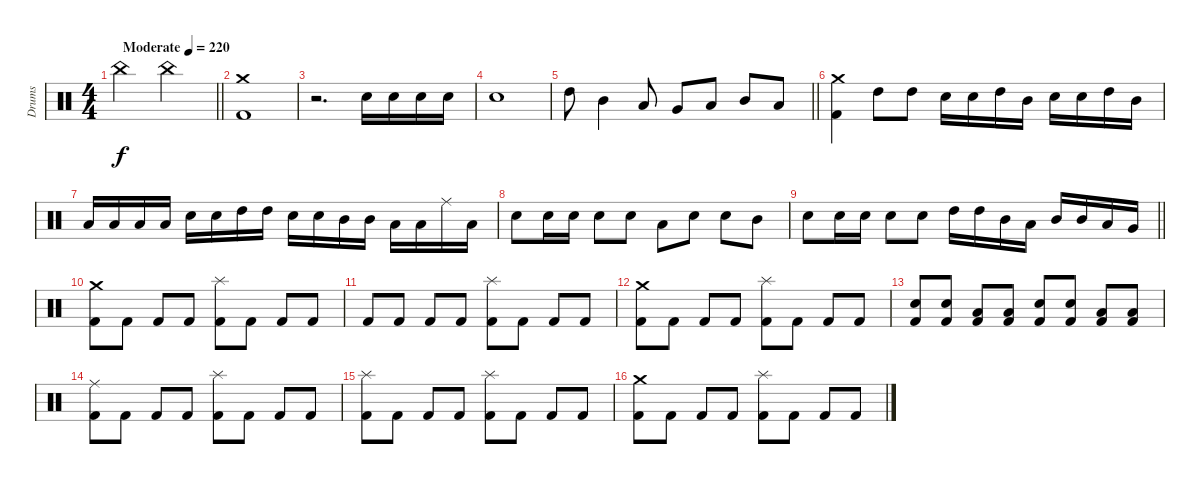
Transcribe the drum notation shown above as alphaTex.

\track ("Drums" "Drums") {instrument percussion}
\staff {score}
\articulation defaults
\ts (4 4)
\section ("" "")
\tempo (220 "Moderate")
\clef neutral
\barLineRight lightlight
\ks c "China (hit)".2{dy f} "China (hit)".2
|
\section ("" "")
("Crash medium (hit)" "Kick (hit) 2").1 |
r.2{d} "Electric Snare (hit)".16 "Electric Snare (hit)".16 "Electric Snare (hit)".16 "Electric Snare (hit)".16 |
"Electric Snare (hit)".1 |
\barLineRight lightlight "High Tom (hit)".8 "Mid Tom (hit)".4 "Low Tom (hit)".8 "Very Low Tom (hit)".8 "Low Tom (hit)".8 "Mid Tom (hit)".8 "Low Tom (hit)".8
|
("Crash medium (hit)" "Kick (hit) 2").4 "High Tom (hit)".8 "High Tom (hit)".8 "Electric Snare (hit)".16 "Electric Snare (hit)".16 "High Tom (hit)".16 "Mid Tom (hit)".16 "Electric Snare (hit)".16 "Electric Snare (hit)".16 "High Tom (hit)".16 "Mid Tom (hit)".16 |
"Low Tom (hit)".16 "Low Tom (hit)".16 "Low Tom (hit)".16 "Low Tom (hit)".16 "Electric Snare (hit)".16 "Electric Snare (hit)".16 "High Tom (hit)".16 "High Tom (hit)".16 "Electric Snare (hit)".16 "Electric Snare (hit)".16 "Mid Tom (hit)".16 "Mid Tom (hit)".16 "Low Tom (hit)".16 "Low Tom (hit)".16 "Ride (middle)".16 "Low Tom (hit)".16 |
"Electric Snare (hit)".8 "Electric Snare (hit)".16 "Electric Snare (hit)".16 "Electric Snare (hit)".8 "Electric Snare (hit)".8 "Low Tom (hit)".8 "Electric Snare (hit)".8 "Electric Snare (hit)".8 "Mid Tom (hit)".8 |
\barLineRight lightlight "Electric Snare (hit)".8 "Electric Snare (hit)".16 "Electric Snare (hit)".16 "Electric Snare (hit)".8 "Electric Snare (hit)".8 "High Tom (hit)".16 "High Tom (hit)".16 "Mid Tom (hit)".16 "Low Tom (hit)".16 "Mid Tom (hit)".16 "Mid Tom (hit)".16 "Low Tom (hit)".16 "Very Low Tom (hit)".16
|
\section ("" "")
("Crash medium (hit)" "Kick (hit) 2").8 "Kick (hit) 2".8 "Kick (hit) 2".8 "Kick (hit) 2".8 ("Splash (hit)" "Kick (hit) 2").8 "Kick (hit) 2".8 "Kick (hit) 2".8 "Kick (hit) 2".8 |
"Kick (hit) 2".8 "Kick (hit) 2".8 "Kick (hit) 2".8 "Kick (hit) 2".8 ("Splash (hit)" "Kick (hit) 2").8 "Kick (hit) 2".8 "Kick (hit) 2".8 "Kick (hit) 2".8 |
("Crash medium (hit)" "Kick (hit) 2").8 "Kick (hit) 2".8 "Kick (hit) 2".8 "Kick (hit) 2".8 ("Splash (hit)" "Kick (hit) 2").8 "Kick (hit) 2".8 "Kick (hit) 2".8 "Kick (hit) 2".8 |
("Electric Snare (hit)" "Kick (hit) 2").8 ("Electric Snare (hit)" "Kick (hit) 2").8 ("Low Tom (hit)" "Kick (hit) 2").8 ("Low Tom (hit)" "Kick (hit) 2").8 ("Electric Snare (hit)" "Kick (hit) 2").8 ("Electric Snare (hit)" "Kick (hit) 2").8 ("Low Tom (hit)" "Kick (hit) 2").8 ("Low Tom (hit)" "Kick (hit) 2").8 |
("Ride (middle)" "Kick (hit) 2").8 "Kick (hit) 2".8 "Kick (hit) 2".8 "Kick (hit) 2".8 ("Splash (hit)" "Kick (hit) 2").8 "Kick (hit) 2".8 "Kick (hit) 2".8 "Kick (hit) 2".8 |
("Splash (hit)" "Kick (hit) 2").8 "Kick (hit) 2".8 "Kick (hit) 2".8 "Kick (hit) 2".8 ("Splash (hit)" "Kick (hit) 2").8 "Kick (hit) 2".8 "Kick (hit) 2".8 "Kick (hit) 2".8 |
("Crash medium (hit)" "Kick (hit) 2").8 "Kick (hit) 2".8 "Kick (hit) 2".8 "Kick (hit) 2".8 ("Splash (hit)" "Kick (hit) 2").8 "Kick (hit) 2".8 "Kick (hit) 2".8 "Kick (hit) 2".8
